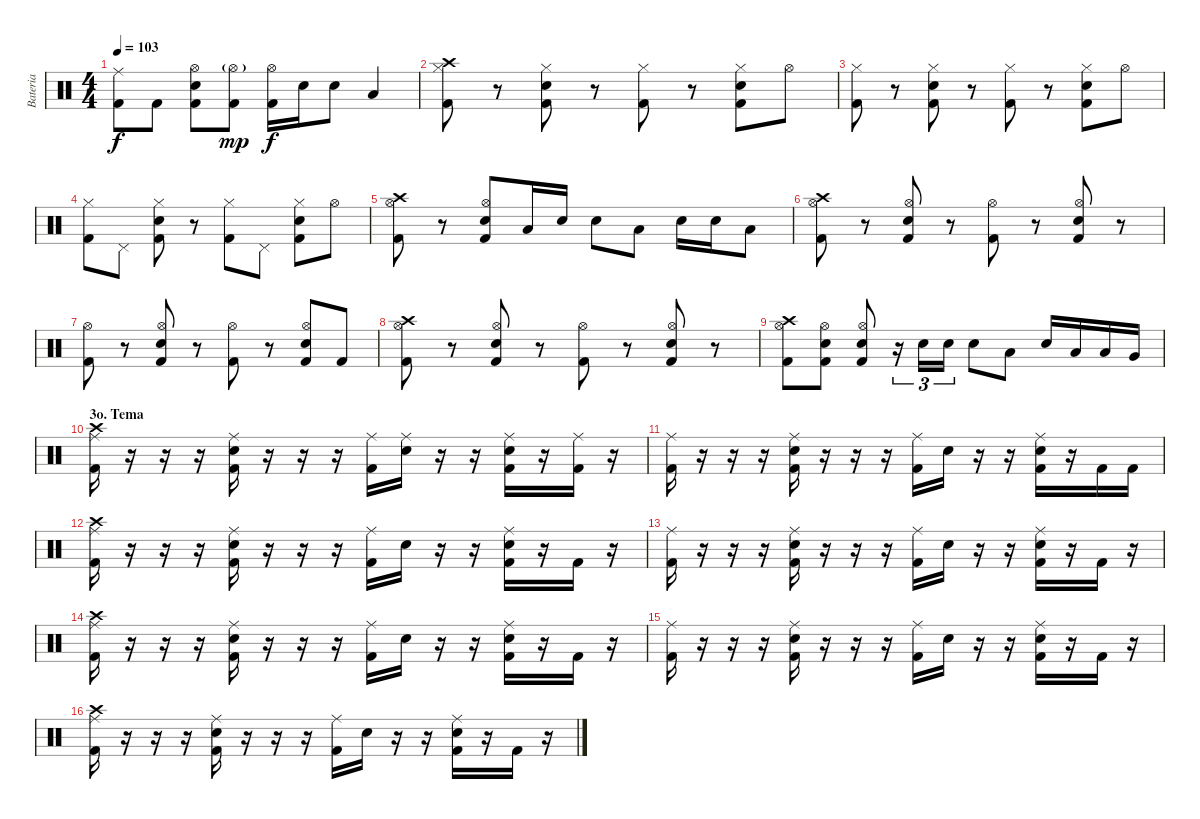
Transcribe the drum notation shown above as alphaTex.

\track ("Bateria" "Bateria") {instrument percussion}
\staff {score}
\articulation defaults
\ts (4 4)
\tempo 103
\clef neutral
\ks c
("Ride (middle)" "Kick (hit) 2").8{dy f} "Kick (hit) 2".8 ("Hi-Hat (open)" "Snare (hit) 2" "Kick (hit) 2").8 ("Hi-Hat (open)"{g} "Kick (hit) 2").8{dy mp} ("Hi-Hat (open)" "Kick (hit) 2").16{dy f} "Snare (hit) 2".16 "Snare (hit) 2".8 "Low Tom (hit)".4 |
("Hi-Hat (closed)" "Kick (hit) 2" "Crash high (hit)").8 r.8 ("Hi-Hat (closed)" "Snare (hit) 2" "Kick (hit) 2").8 r.8 ("Hi-Hat (closed)" "Kick (hit) 2").8 r.8 ("Hi-Hat (closed)" "Snare (hit) 2" "Kick (hit) 2").8 "Hi-Hat (open)".8 |
("Hi-Hat (closed)" "Kick (hit) 2").8 r.8 ("Hi-Hat (closed)" "Snare (hit) 2" "Kick (hit) 2").8 r.8 ("Hi-Hat (closed)" "Kick (hit) 2").8 r.8 ("Hi-Hat (closed)" "Snare (hit) 2" "Kick (hit) 2").8 "Hi-Hat (open)".8 |
("Hi-Hat (closed)" "Kick (hit) 2").8 "Pedal Hi-Hat (hit)".8 ("Hi-Hat (closed)" "Snare (hit) 2" "Kick (hit) 2").8 r.8 ("Hi-Hat (closed)" "Kick (hit) 2").8 "Pedal Hi-Hat (hit)".8 ("Hi-Hat (closed)" "Snare (hit) 2" "Kick (hit) 2").8 "Hi-Hat (open)".8 |
("Hi-Hat (open)" "Kick (hit) 2" "Crash high (hit)").8 r.8 ("Hi-Hat (open)" "Snare (hit) 2" "Kick (hit) 2").8 "Low Tom (hit)".16 "Snare (hit) 2".16 "Snare (hit) 2".8 "Low Tom (hit)".8 "Snare (hit) 2".16 "Snare (hit) 2".16 "Low Tom (hit)".8 |
("Hi-Hat (open)" "Kick (hit) 2" "Crash high (hit)").8 r.8 ("Hi-Hat (open)" "Snare (hit) 2" "Kick (hit) 2").8 r.8 ("Hi-Hat (open)" "Kick (hit) 2").8 r.8 ("Hi-Hat (open)" "Snare (hit) 2" "Kick (hit) 2").8 r.8 |
("Hi-Hat (open)" "Kick (hit) 2").8 r.8 ("Hi-Hat (open)" "Snare (hit) 2" "Kick (hit) 2").8 r.8 ("Hi-Hat (open)" "Kick (hit) 2").8 r.8 ("Hi-Hat (open)" "Snare (hit) 2" "Kick (hit) 2").8 "Kick (hit) 2".8 |
("Hi-Hat (open)" "Kick (hit) 2" "Crash high (hit)").8 r.8 ("Hi-Hat (open)" "Snare (hit) 2" "Kick (hit) 2").8 r.8 ("Hi-Hat (open)" "Kick (hit) 2").8 r.8 ("Hi-Hat (open)" "Snare (hit) 2" "Kick (hit) 2").8 r.8 |
("Hi-Hat (open)" "Kick (hit) 2" "Crash high (hit)").8 ("Hi-Hat (open)" "Snare (hit) 2" "Kick (hit) 2").8 ("Hi-Hat (open)" "Snare (hit) 2" "Kick (hit) 2").8 r.16{tu (3 2)} "Snare (hit) 2".16{tu (3 2)} "Snare (hit) 2".16{tu (3 2)} "Snare (hit) 2".8 "Low Tom (hit)".8 "Snare (hit) 2".16 "Low Tom (hit)".16 "Low Tom (hit)".16 "Very Low Tom (hit)".16 |
\section ("" "3o. Tema")
("Ride (middle)" "Kick (hit) 2" "Crash high (hit)").16 r.16 r.16 r.16 ("Ride (middle)" "Snare (hit) 2" "Kick (hit) 2").16 r.16 r.16 r.16 ("Ride (middle)" "Kick (hit) 2").16 ("Ride (middle)" "Snare (hit) 2").16 r.16 r.16 ("Ride (middle)" "Snare (hit) 2" "Kick (hit) 2").16 r.16 ("Ride (middle)" "Kick (hit) 2").16 r.16 |
("Ride (middle)" "Kick (hit) 2").16 r.16 r.16 r.16 ("Ride (middle)" "Snare (hit) 2" "Kick (hit) 2").16 r.16 r.16 r.16 ("Ride (middle)" "Kick (hit) 2").16 "Snare (hit) 2".16 r.16 r.16 ("Ride (middle)" "Snare (hit) 2" "Kick (hit) 2").16 r.16 "Kick (hit) 2".16 "Kick (hit) 2".16 |
("Ride (middle)" "Kick (hit) 2" "Crash high (hit)").16 r.16 r.16 r.16 ("Ride (middle)" "Snare (hit) 2" "Kick (hit) 2").16 r.16 r.16 r.16 ("Ride (middle)" "Kick (hit) 2").16 "Snare (hit) 2".16 r.16 r.16 ("Ride (middle)" "Snare (hit) 2" "Kick (hit) 2").16 r.16 "Kick (hit) 2".16 r.16 |
("Ride (middle)" "Kick (hit) 2").16 r.16 r.16 r.16 ("Ride (middle)" "Snare (hit) 2" "Kick (hit) 2").16 r.16 r.16 r.16 ("Ride (middle)" "Kick (hit) 2").16 "Snare (hit) 2".16 r.16 r.16 ("Ride (middle)" "Snare (hit) 2" "Kick (hit) 2").16 r.16 "Kick (hit) 2".16 r.16 |
("Ride (middle)" "Kick (hit) 2" "Crash high (hit)").16 r.16 r.16 r.16 ("Ride (middle)" "Snare (hit) 2" "Kick (hit) 2").16 r.16 r.16 r.16 ("Ride (middle)" "Kick (hit) 2").16 "Snare (hit) 2".16 r.16 r.16 ("Ride (middle)" "Snare (hit) 2" "Kick (hit) 2").16 r.16 "Kick (hit) 2".16 r.16 |
("Ride (middle)" "Kick (hit) 2").16 r.16 r.16 r.16 ("Ride (middle)" "Snare (hit) 2" "Kick (hit) 2").16 r.16 r.16 r.16 ("Ride (middle)" "Kick (hit) 2").16 "Snare (hit) 2".16 r.16 r.16 ("Ride (middle)" "Snare (hit) 2" "Kick (hit) 2").16 r.16 "Kick (hit) 2".16 r.16 |
("Ride (middle)" "Kick (hit) 2" "Crash high (hit)").16 r.16 r.16 r.16 ("Ride (middle)" "Snare (hit) 2" "Kick (hit) 2").16 r.16 r.16 r.16 ("Ride (middle)" "Kick (hit) 2").16 "Snare (hit) 2".16 r.16 r.16 ("Ride (middle)" "Snare (hit) 2" "Kick (hit) 2").16 r.16 "Kick (hit) 2".16 r.16
